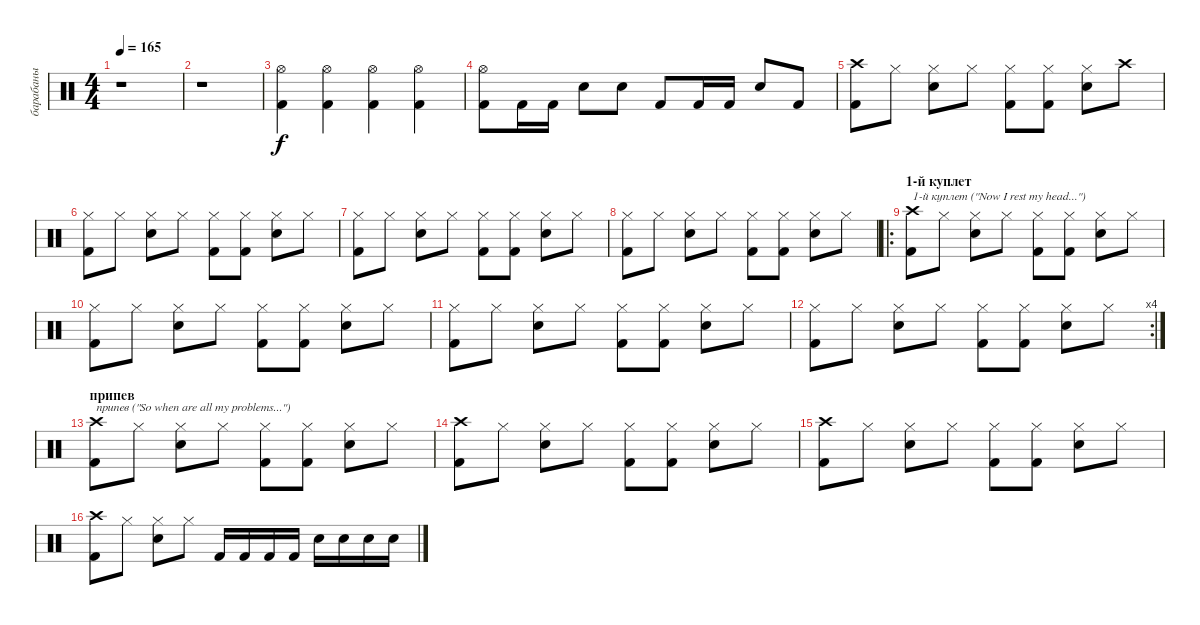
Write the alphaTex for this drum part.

\track ("барабаны" "барабаны") {instrument percussion}
\staff {score}
\articulation defaults
\ts (4 4)
\tempo 165
\clef neutral
\ks c
r.1{dy f} |
r.1 |
("Hi-Hat (open)" "Kick (hit) 2").4 ("Hi-Hat (open)" "Kick (hit) 2").4 ("Hi-Hat (open)" "Kick (hit) 2").4 ("Hi-Hat (open)" "Kick (hit) 2").4 |
("Hi-Hat (open)" "Kick (hit) 2").8 "Kick (hit) 2".16 "Kick (hit) 2".16 "Snare (hit) 2".8 "Snare (hit) 2".8 "Kick (hit) 2".8 "Kick (hit) 2".16 "Kick (hit) 2".16 "Snare (hit) 2".8 "Kick (hit) 2".8 |
("Crash high (hit)" "Kick (hit) 2").8 "Hi-Hat (closed)".8 ("Hi-Hat (closed)" "Snare (hit) 2").8 "Hi-Hat (closed)".8 ("Hi-Hat (closed)" "Kick (hit) 2").8 ("Hi-Hat (closed)" "Kick (hit) 2").8 ("Hi-Hat (closed)" "Snare (hit) 2").8 "Crash high (hit)".8 |
("Hi-Hat (closed)" "Kick (hit) 2").8 "Hi-Hat (closed)".8 ("Hi-Hat (closed)" "Snare (hit) 2").8 "Hi-Hat (closed)".8 ("Hi-Hat (closed)" "Kick (hit) 2").8 ("Hi-Hat (closed)" "Kick (hit) 2").8 ("Hi-Hat (closed)" "Snare (hit) 2").8 "Hi-Hat (closed)".8 |
("Hi-Hat (closed)" "Kick (hit) 2").8 "Hi-Hat (closed)".8 ("Hi-Hat (closed)" "Snare (hit) 2").8 "Hi-Hat (closed)".8 ("Hi-Hat (closed)" "Kick (hit) 2").8 ("Hi-Hat (closed)" "Kick (hit) 2").8 ("Hi-Hat (closed)" "Snare (hit) 2").8 "Hi-Hat (closed)".8 |
("Hi-Hat (closed)" "Kick (hit) 2").8 "Hi-Hat (closed)".8 ("Hi-Hat (closed)" "Snare (hit) 2").8 "Hi-Hat (closed)".8 ("Hi-Hat (closed)" "Kick (hit) 2").8 ("Hi-Hat (closed)" "Kick (hit) 2").8 ("Hi-Hat (closed)" "Snare (hit) 2").8 "Hi-Hat (closed)".8 |
\ro
\section ("" "1-й куплет")
("Crash high (hit)" "Kick (hit) 2").8{txt "1-й куплет (\"Now I rest my head...\") "} "Hi-Hat (closed)".8 ("Hi-Hat (closed)" "Snare (hit) 2").8 "Hi-Hat (closed)".8 ("Hi-Hat (closed)" "Kick (hit) 2").8 ("Hi-Hat (closed)" "Kick (hit) 2").8 ("Hi-Hat (closed)" "Snare (hit) 2").8 "Hi-Hat (closed)".8 |
("Hi-Hat (closed)" "Kick (hit) 2").8 "Hi-Hat (closed)".8 ("Hi-Hat (closed)" "Snare (hit) 2").8 "Hi-Hat (closed)".8 ("Hi-Hat (closed)" "Kick (hit) 2").8 ("Hi-Hat (closed)" "Kick (hit) 2").8 ("Hi-Hat (closed)" "Snare (hit) 2").8 "Hi-Hat (closed)".8 |
("Hi-Hat (closed)" "Kick (hit) 2").8 "Hi-Hat (closed)".8 ("Hi-Hat (closed)" "Snare (hit) 2").8 "Hi-Hat (closed)".8 ("Hi-Hat (closed)" "Kick (hit) 2").8 ("Hi-Hat (closed)" "Kick (hit) 2").8 ("Hi-Hat (closed)" "Snare (hit) 2").8 "Hi-Hat (closed)".8 |
\rc 4
("Hi-Hat (closed)" "Kick (hit) 2").8 "Hi-Hat (closed)".8 ("Hi-Hat (closed)" "Snare (hit) 2").8 "Hi-Hat (closed)".8 ("Hi-Hat (closed)" "Kick (hit) 2").8 ("Hi-Hat (closed)" "Kick (hit) 2").8 ("Hi-Hat (closed)" "Snare (hit) 2").8 "Hi-Hat (closed)".8 |
\section ("" "припев")
("Crash high (hit)" "Kick (hit) 2").8{txt "припев (\"So when are all my problems...\")"} "Hi-Hat (closed)".8 ("Hi-Hat (closed)" "Snare (hit) 2").8 "Hi-Hat (closed)".8 ("Hi-Hat (closed)" "Kick (hit) 2").8 ("Hi-Hat (closed)" "Kick (hit) 2").8 ("Hi-Hat (closed)" "Snare (hit) 2").8 "Hi-Hat (closed)".8 |
("Crash high (hit)" "Kick (hit) 2").8 "Hi-Hat (closed)".8 ("Hi-Hat (closed)" "Snare (hit) 2").8 "Hi-Hat (closed)".8 ("Hi-Hat (closed)" "Kick (hit) 2").8 ("Hi-Hat (closed)" "Kick (hit) 2").8 ("Hi-Hat (closed)" "Snare (hit) 2").8 "Hi-Hat (closed)".8 |
("Crash high (hit)" "Kick (hit) 2").8 "Hi-Hat (closed)".8 ("Hi-Hat (closed)" "Snare (hit) 2").8 "Hi-Hat (closed)".8 ("Hi-Hat (closed)" "Kick (hit) 2").8 ("Hi-Hat (closed)" "Kick (hit) 2").8 ("Hi-Hat (closed)" "Snare (hit) 2").8 "Hi-Hat (closed)".8 |
("Crash high (hit)" "Kick (hit) 2").8 "Hi-Hat (closed)".8 ("Hi-Hat (closed)" "Snare (hit) 2").8 "Hi-Hat (closed)".8 "Kick (hit) 2".16 "Kick (hit) 2".16 "Kick (hit) 2".16 "Kick (hit) 2".16 "Snare (hit) 2".16 "Snare (hit) 2".16 "Snare (hit) 2".16 "Snare (hit) 2".16
